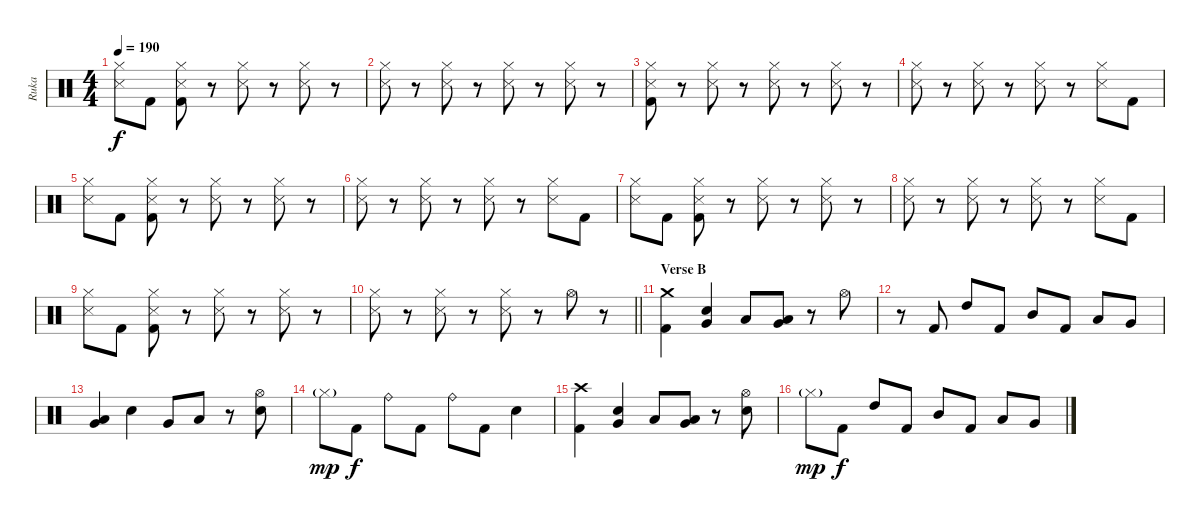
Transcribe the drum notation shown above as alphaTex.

\track ("Ruka " "Ruka ") {instrument percussion}
\staff {score}
\articulation defaults
\ts (4 4)
\tempo 190
\clef neutral
\ks c
("Hi-Hat (closed)" "Snare (side stick) 3").8{dy f} "Kick (hit) 2".8 ("Hi-Hat (closed)" "Snare (side stick) 3" "Kick (hit) 2").8 r.8 ("Hi-Hat (closed)" "Snare (side stick) 3").8 r.8 ("Hi-Hat (closed)" "Snare (side stick) 3").8 r.8 |
("Hi-Hat (closed)" "Snare (side stick) 3").8 r.8 ("Hi-Hat (closed)" "Snare (side stick) 3").8 r.8 ("Hi-Hat (closed)" "Snare (side stick) 3").8 r.8 ("Hi-Hat (closed)" "Snare (side stick) 3").8 r.8 |
("Hi-Hat (closed)" "Snare (side stick) 3" "Kick (hit) 2").8 r.8 ("Hi-Hat (closed)" "Snare (side stick) 3").8 r.8 ("Hi-Hat (closed)" "Snare (side stick) 3").8 r.8 ("Hi-Hat (closed)" "Snare (side stick) 3").8 r.8 |
("Hi-Hat (closed)" "Snare (side stick) 3").8 r.8 ("Hi-Hat (closed)" "Snare (side stick) 3").8 r.8 ("Hi-Hat (closed)" "Snare (side stick) 3").8 r.8 ("Hi-Hat (closed)" "Snare (side stick) 3").8 "Kick (hit) 2".8 |
("Hi-Hat (closed)" "Snare (side stick) 3").8 "Kick (hit) 2".8 ("Hi-Hat (closed)" "Snare (side stick) 3" "Kick (hit) 2").8 r.8 ("Hi-Hat (closed)" "Snare (side stick) 3").8 r.8 ("Hi-Hat (closed)" "Snare (side stick) 3").8 r.8 |
("Hi-Hat (closed)" "Snare (side stick) 3").8 r.8 ("Hi-Hat (closed)" "Snare (side stick) 3").8 r.8 ("Hi-Hat (closed)" "Snare (side stick) 3").8 r.8 ("Hi-Hat (closed)" "Snare (side stick) 3").8 "Kick (hit) 2".8 |
("Hi-Hat (closed)" "Snare (side stick) 3").8 "Kick (hit) 2".8 ("Hi-Hat (closed)" "Snare (side stick) 3" "Kick (hit) 2").8 r.8 ("Hi-Hat (closed)" "Snare (side stick) 3").8 r.8 ("Hi-Hat (closed)" "Snare (side stick) 3").8 r.8 |
("Hi-Hat (closed)" "Snare (side stick) 3").8 r.8 ("Hi-Hat (closed)" "Snare (side stick) 3").8 r.8 ("Hi-Hat (closed)" "Snare (side stick) 3").8 r.8 ("Hi-Hat (closed)" "Snare (side stick) 3").8 "Kick (hit) 2".8 |
("Hi-Hat (closed)" "Snare (side stick) 3").8 "Kick (hit) 2".8 ("Hi-Hat (closed)" "Snare (side stick) 3" "Kick (hit) 2").8 r.8 ("Hi-Hat (closed)" "Snare (side stick) 3").8 r.8 ("Hi-Hat (closed)" "Snare (side stick) 3").8 r.8 |
\barLineRight lightlight
("Hi-Hat (closed)" "Snare (side stick) 3").8 r.8 ("Hi-Hat (closed)" "Snare (side stick) 3").8 r.8 ("Hi-Hat (closed)" "Snare (side stick) 3").8 r.8 "Hi-Hat (open)".8 r.8 |
\section ("" "Verse B")
("Crash medium (hit)" "Kick (hit) 2").4 ("Very Low Tom (hit)" "Electric Snare (hit)").4 "Low Tom (hit)".8 ("Very Low Tom (hit)" "Low Floor Tom (hit)").8 r.8 "Hi-Hat (open)".8 |
r.8 "Kick (hit) 2".8 "High Tom (hit)".8 "Kick (hit) 2".8 "Mid Tom (hit)".8 "Kick (hit) 2".8 "Low Tom (hit)".8 "Very Low Tom (hit)".8 |
("Very Low Tom (hit)" "Low Floor Tom (hit)").4 "Electric Snare (hit)".4 "Very Low Tom (hit)".8 "Low Tom (hit)".8 r.8 ("Hi-Hat (open)" "Electric Snare (hit)").8 |
"Hi-Hat (closed)"{g}.8{dy mp} "Kick (hit) 2".8{dy f} "Ride (bell)".8 "Kick (hit) 2".8 "Ride (bell)".8 "Kick (hit) 2".8 "Electric Snare (hit)".4 |
("Crash high (hit)" "Kick (hit) 2").4 ("Very Low Tom (hit)" "Electric Snare (hit)").4 "Low Tom (hit)".8 ("Very Low Tom (hit)" "Low Floor Tom (hit)").8 r.8 ("Hi-Hat (open)" "Electric Snare (hit)").8 |
"Hi-Hat (closed)"{g}.8{dy mp} "Kick (hit) 2".8{dy f} "High Tom (hit)".8 "Kick (hit) 2".8 "Mid Tom (hit)".8 "Kick (hit) 2".8 "Low Tom (hit)".8 "Very Low Tom (hit)".8
